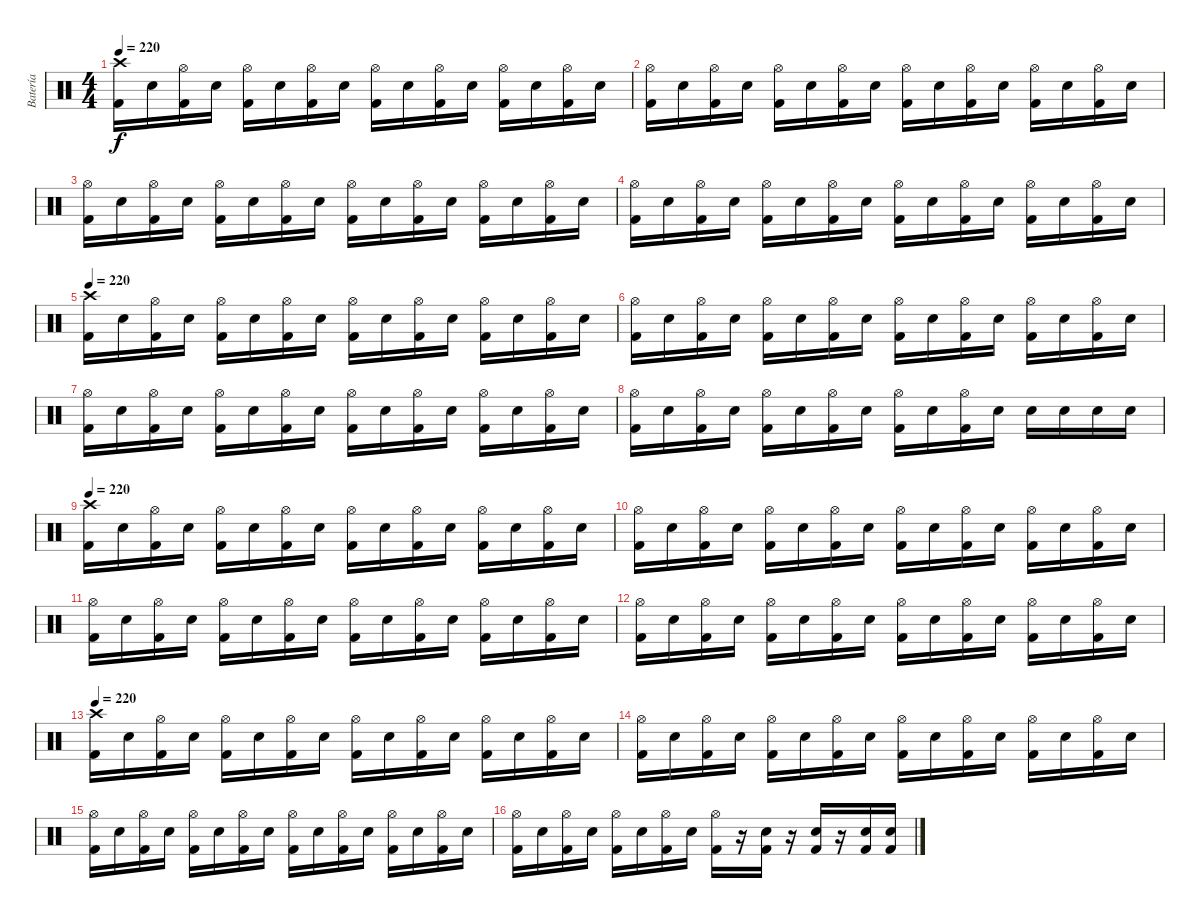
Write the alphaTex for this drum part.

\track ("Batería" "Batería") {instrument percussion}
\staff {score}
\articulation defaults
\ts (4 4)
\tempo 220
\clef neutral
\ks c
("Crash high (hit)" "Kick (hit) 2").16{dy f} "Snare (hit) 2".16 ("Hi-Hat (open)" "Kick (hit) 2").16 "Snare (hit) 2".16 ("Hi-Hat (open)" "Kick (hit) 2").16 "Snare (hit) 2".16 ("Hi-Hat (open)" "Kick (hit) 2").16 "Snare (hit) 2".16 ("Hi-Hat (open)" "Kick (hit) 2").16 "Snare (hit) 2".16 ("Hi-Hat (open)" "Kick (hit) 2").16 "Snare (hit) 2".16 ("Hi-Hat (open)" "Kick (hit) 2").16 "Snare (hit) 2".16 ("Hi-Hat (open)" "Kick (hit) 2").16 "Snare (hit) 2".16 |
("Hi-Hat (open)" "Kick (hit) 2").16 "Snare (hit) 2".16 ("Hi-Hat (open)" "Kick (hit) 2").16 "Snare (hit) 2".16 ("Hi-Hat (open)" "Kick (hit) 2").16 "Snare (hit) 2".16 ("Hi-Hat (open)" "Kick (hit) 2").16 "Snare (hit) 2".16 ("Hi-Hat (open)" "Kick (hit) 2").16 "Snare (hit) 2".16 ("Hi-Hat (open)" "Kick (hit) 2").16 "Snare (hit) 2".16 ("Hi-Hat (open)" "Kick (hit) 2").16 "Snare (hit) 2".16 ("Hi-Hat (open)" "Kick (hit) 2").16 "Snare (hit) 2".16 |
("Hi-Hat (open)" "Kick (hit) 2").16 "Snare (hit) 2".16 ("Hi-Hat (open)" "Kick (hit) 2").16 "Snare (hit) 2".16 ("Hi-Hat (open)" "Kick (hit) 2").16 "Snare (hit) 2".16 ("Hi-Hat (open)" "Kick (hit) 2").16 "Snare (hit) 2".16 ("Hi-Hat (open)" "Kick (hit) 2").16 "Snare (hit) 2".16 ("Hi-Hat (open)" "Kick (hit) 2").16 "Snare (hit) 2".16 ("Hi-Hat (open)" "Kick (hit) 2").16 "Snare (hit) 2".16 ("Hi-Hat (open)" "Kick (hit) 2").16 "Snare (hit) 2".16 |
("Hi-Hat (open)" "Kick (hit) 2").16 "Snare (hit) 2".16 ("Hi-Hat (open)" "Kick (hit) 2").16 "Snare (hit) 2".16 ("Hi-Hat (open)" "Kick (hit) 2").16 "Snare (hit) 2".16 ("Hi-Hat (open)" "Kick (hit) 2").16 "Snare (hit) 2".16 ("Hi-Hat (open)" "Kick (hit) 2").16 "Snare (hit) 2".16 ("Hi-Hat (open)" "Kick (hit) 2").16 "Snare (hit) 2".16 ("Hi-Hat (open)" "Kick (hit) 2").16 "Snare (hit) 2".16 ("Hi-Hat (open)" "Kick (hit) 2").16 "Snare (hit) 2".16 |
\tempo 220
("Crash high (hit)" "Kick (hit) 2").16 "Snare (hit) 2".16 ("Hi-Hat (open)" "Kick (hit) 2").16 "Snare (hit) 2".16 ("Hi-Hat (open)" "Kick (hit) 2").16 "Snare (hit) 2".16 ("Hi-Hat (open)" "Kick (hit) 2").16 "Snare (hit) 2".16 ("Hi-Hat (open)" "Kick (hit) 2").16 "Snare (hit) 2".16 ("Hi-Hat (open)" "Kick (hit) 2").16 "Snare (hit) 2".16 ("Hi-Hat (open)" "Kick (hit) 2").16 "Snare (hit) 2".16 ("Hi-Hat (open)" "Kick (hit) 2").16 "Snare (hit) 2".16 |
("Hi-Hat (open)" "Kick (hit) 2").16 "Snare (hit) 2".16 ("Hi-Hat (open)" "Kick (hit) 2").16 "Snare (hit) 2".16 ("Hi-Hat (open)" "Kick (hit) 2").16 "Snare (hit) 2".16 ("Hi-Hat (open)" "Kick (hit) 2").16 "Snare (hit) 2".16 ("Hi-Hat (open)" "Kick (hit) 2").16 "Snare (hit) 2".16 ("Hi-Hat (open)" "Kick (hit) 2").16 "Snare (hit) 2".16 ("Hi-Hat (open)" "Kick (hit) 2").16 "Snare (hit) 2".16 ("Hi-Hat (open)" "Kick (hit) 2").16 "Snare (hit) 2".16 |
("Hi-Hat (open)" "Kick (hit) 2").16 "Snare (hit) 2".16 ("Hi-Hat (open)" "Kick (hit) 2").16 "Snare (hit) 2".16 ("Hi-Hat (open)" "Kick (hit) 2").16 "Snare (hit) 2".16 ("Hi-Hat (open)" "Kick (hit) 2").16 "Snare (hit) 2".16 ("Hi-Hat (open)" "Kick (hit) 2").16 "Snare (hit) 2".16 ("Hi-Hat (open)" "Kick (hit) 2").16 "Snare (hit) 2".16 ("Hi-Hat (open)" "Kick (hit) 2").16 "Snare (hit) 2".16 ("Hi-Hat (open)" "Kick (hit) 2").16 "Snare (hit) 2".16 |
("Hi-Hat (open)" "Kick (hit) 2").16 "Snare (hit) 2".16 ("Hi-Hat (open)" "Kick (hit) 2").16 "Snare (hit) 2".16 ("Hi-Hat (open)" "Kick (hit) 2").16 "Snare (hit) 2".16 ("Hi-Hat (open)" "Kick (hit) 2").16 "Snare (hit) 2".16 ("Hi-Hat (open)" "Kick (hit) 2").16 "Snare (hit) 2".16 ("Hi-Hat (open)" "Kick (hit) 2").16 "Snare (hit) 2".16 "Snare (hit) 2".16 "Snare (hit) 2".16 "Snare (hit) 2".16 "Snare (hit) 2".16 |
\tempo 220
("Crash high (hit)" "Kick (hit) 2").16 "Snare (hit) 2".16 ("Hi-Hat (open)" "Kick (hit) 2").16 "Snare (hit) 2".16 ("Hi-Hat (open)" "Kick (hit) 2").16 "Snare (hit) 2".16 ("Hi-Hat (open)" "Kick (hit) 2").16 "Snare (hit) 2".16 ("Hi-Hat (open)" "Kick (hit) 2").16 "Snare (hit) 2".16 ("Hi-Hat (open)" "Kick (hit) 2").16 "Snare (hit) 2".16 ("Hi-Hat (open)" "Kick (hit) 2").16 "Snare (hit) 2".16 ("Hi-Hat (open)" "Kick (hit) 2").16 "Snare (hit) 2".16 |
("Hi-Hat (open)" "Kick (hit) 2").16 "Snare (hit) 2".16 ("Hi-Hat (open)" "Kick (hit) 2").16 "Snare (hit) 2".16 ("Hi-Hat (open)" "Kick (hit) 2").16 "Snare (hit) 2".16 ("Hi-Hat (open)" "Kick (hit) 2").16 "Snare (hit) 2".16 ("Hi-Hat (open)" "Kick (hit) 2").16 "Snare (hit) 2".16 ("Hi-Hat (open)" "Kick (hit) 2").16 "Snare (hit) 2".16 ("Hi-Hat (open)" "Kick (hit) 2").16 "Snare (hit) 2".16 ("Hi-Hat (open)" "Kick (hit) 2").16 "Snare (hit) 2".16 |
("Hi-Hat (open)" "Kick (hit) 2").16 "Snare (hit) 2".16 ("Hi-Hat (open)" "Kick (hit) 2").16 "Snare (hit) 2".16 ("Hi-Hat (open)" "Kick (hit) 2").16 "Snare (hit) 2".16 ("Hi-Hat (open)" "Kick (hit) 2").16 "Snare (hit) 2".16 ("Hi-Hat (open)" "Kick (hit) 2").16 "Snare (hit) 2".16 ("Hi-Hat (open)" "Kick (hit) 2").16 "Snare (hit) 2".16 ("Hi-Hat (open)" "Kick (hit) 2").16 "Snare (hit) 2".16 ("Hi-Hat (open)" "Kick (hit) 2").16 "Snare (hit) 2".16 |
("Hi-Hat (open)" "Kick (hit) 2").16 "Snare (hit) 2".16 ("Hi-Hat (open)" "Kick (hit) 2").16 "Snare (hit) 2".16 ("Hi-Hat (open)" "Kick (hit) 2").16 "Snare (hit) 2".16 ("Hi-Hat (open)" "Kick (hit) 2").16 "Snare (hit) 2".16 ("Hi-Hat (open)" "Kick (hit) 2").16 "Snare (hit) 2".16 ("Hi-Hat (open)" "Kick (hit) 2").16 "Snare (hit) 2".16 ("Hi-Hat (open)" "Kick (hit) 2").16 "Snare (hit) 2".16 ("Hi-Hat (open)" "Kick (hit) 2").16 "Snare (hit) 2".16 |
\tempo 220
("Crash high (hit)" "Kick (hit) 2").16 "Snare (hit) 2".16 ("Hi-Hat (open)" "Kick (hit) 2").16 "Snare (hit) 2".16 ("Hi-Hat (open)" "Kick (hit) 2").16 "Snare (hit) 2".16 ("Hi-Hat (open)" "Kick (hit) 2").16 "Snare (hit) 2".16 ("Hi-Hat (open)" "Kick (hit) 2").16 "Snare (hit) 2".16 ("Hi-Hat (open)" "Kick (hit) 2").16 "Snare (hit) 2".16 ("Hi-Hat (open)" "Kick (hit) 2").16 "Snare (hit) 2".16 ("Hi-Hat (open)" "Kick (hit) 2").16 "Snare (hit) 2".16 |
("Hi-Hat (open)" "Kick (hit) 2").16 "Snare (hit) 2".16 ("Hi-Hat (open)" "Kick (hit) 2").16 "Snare (hit) 2".16 ("Hi-Hat (open)" "Kick (hit) 2").16 "Snare (hit) 2".16 ("Hi-Hat (open)" "Kick (hit) 2").16 "Snare (hit) 2".16 ("Hi-Hat (open)" "Kick (hit) 2").16 "Snare (hit) 2".16 ("Hi-Hat (open)" "Kick (hit) 2").16 "Snare (hit) 2".16 ("Hi-Hat (open)" "Kick (hit) 2").16 "Snare (hit) 2".16 ("Hi-Hat (open)" "Kick (hit) 2").16 "Snare (hit) 2".16 |
("Hi-Hat (open)" "Kick (hit) 2").16 "Snare (hit) 2".16 ("Hi-Hat (open)" "Kick (hit) 2").16 "Snare (hit) 2".16 ("Hi-Hat (open)" "Kick (hit) 2").16 "Snare (hit) 2".16 ("Hi-Hat (open)" "Kick (hit) 2").16 "Snare (hit) 2".16 ("Hi-Hat (open)" "Kick (hit) 2").16 "Snare (hit) 2".16 ("Hi-Hat (open)" "Kick (hit) 2").16 "Snare (hit) 2".16 ("Hi-Hat (open)" "Kick (hit) 2").16 "Snare (hit) 2".16 ("Hi-Hat (open)" "Kick (hit) 2").16 "Snare (hit) 2".16 |
("Hi-Hat (open)" "Kick (hit) 2").16 "Snare (hit) 2".16 ("Hi-Hat (open)" "Kick (hit) 2").16 "Snare (hit) 2".16 ("Hi-Hat (open)" "Kick (hit) 2").16 "Snare (hit) 2".16 ("Hi-Hat (open)" "Kick (hit) 2").16 "Snare (hit) 2".16 ("Hi-Hat (open)" "Kick (hit) 2").16 r.16 ("Snare (hit) 2" "Kick (hit) 2").16 r.16 ("Snare (hit) 2" "Kick (hit) 2").16 r.16 ("Snare (hit) 2" "Kick (hit) 2").16 ("Snare (hit) 2" "Kick (hit) 2").16
